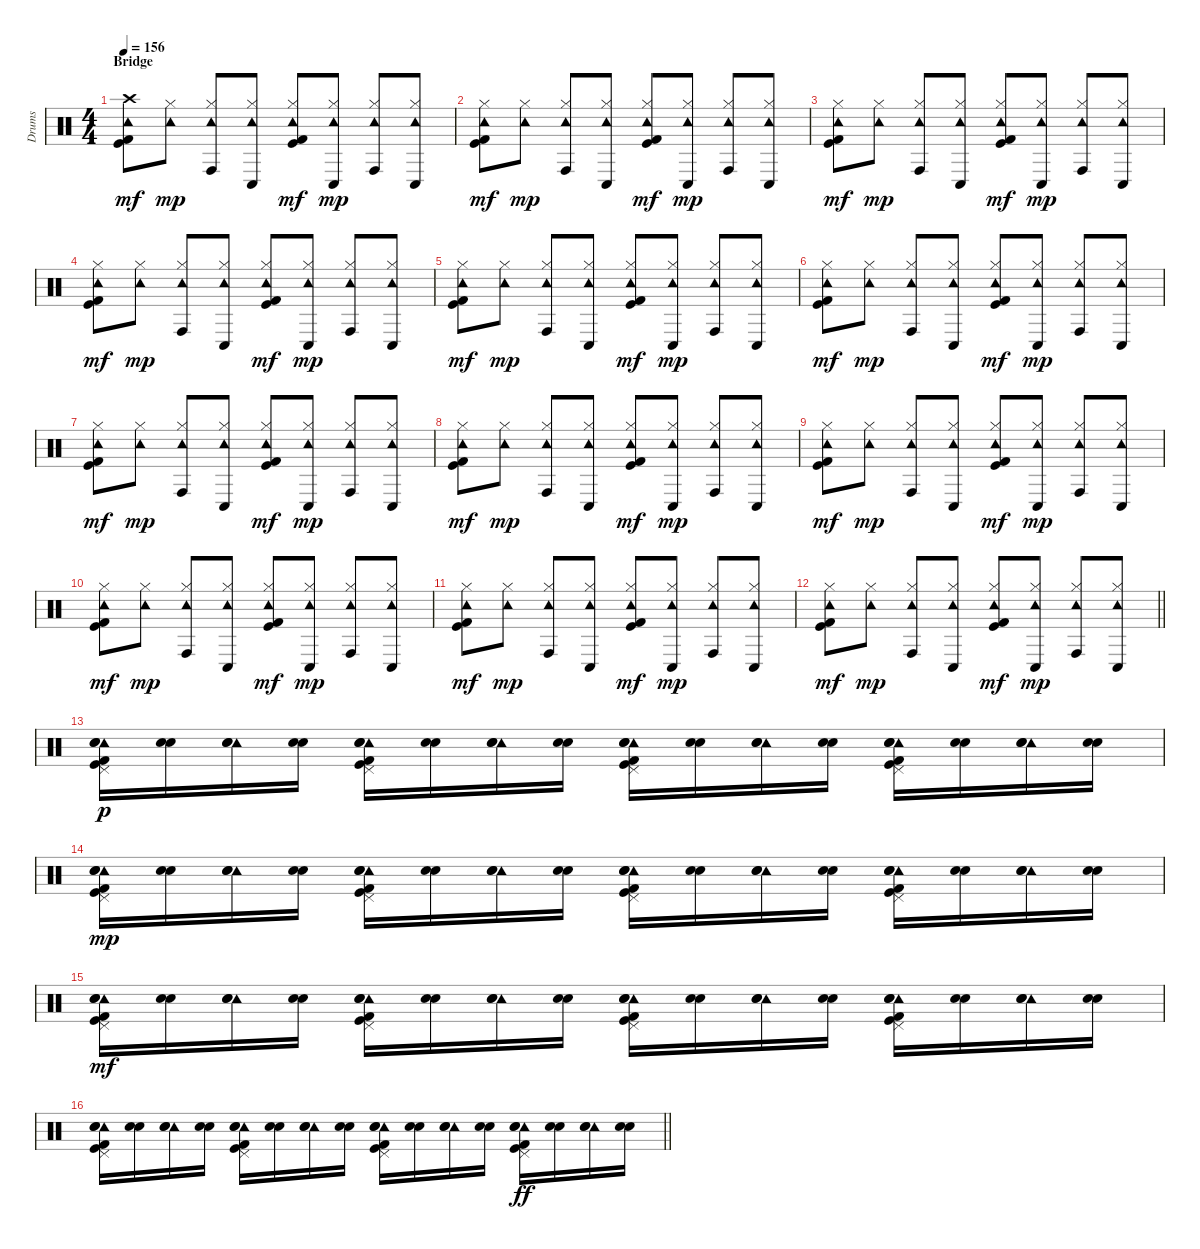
\track ("Drums" "Drums") {instrument percussion}
\staff {score}
\articulation defaults
\ts (4 4)
\section ("" "Bridge")
\tempo 156
\clef neutral
\ks c
("Crash high (hit)" "Tambourine (hit)" "Kick (hit) 2" "Kick (hit)").8{dy mf} ("Hi-Hat (closed)" "Tambourine (hit)").8{dy mp} ("Hi-Hat (closed)" "Tambourine (hit)" "Conga high (hit)").8 ("Hi-Hat (closed)" "Tambourine (hit)" "Conga low (hit)").8 ("Hi-Hat (closed)" "Tambourine (hit)" "Kick (hit) 2" "Kick (hit)").8{dy mf} ("Hi-Hat (closed)" "Tambourine (hit)" "Conga low (hit)").8{dy mp} ("Hi-Hat (closed)" "Tambourine (hit)" "Conga high (hit)").8 ("Hi-Hat (closed)" "Tambourine (hit)" "Conga low (hit)").8 |
("Hi-Hat (closed)" "Tambourine (hit)" "Kick (hit) 2" "Kick (hit)").8{dy mf} ("Hi-Hat (closed)" "Tambourine (hit)").8{dy mp} ("Hi-Hat (closed)" "Tambourine (hit)" "Conga high (hit)").8 ("Hi-Hat (closed)" "Tambourine (hit)" "Conga low (hit)").8 ("Hi-Hat (closed)" "Tambourine (hit)" "Kick (hit) 2" "Kick (hit)").8{dy mf} ("Hi-Hat (closed)" "Tambourine (hit)" "Conga low (hit)").8{dy mp} ("Hi-Hat (closed)" "Tambourine (hit)" "Conga high (hit)").8 ("Hi-Hat (closed)" "Tambourine (hit)" "Conga low (hit)").8 |
("Hi-Hat (closed)" "Tambourine (hit)" "Kick (hit) 2" "Kick (hit)").8{dy mf} ("Hi-Hat (closed)" "Tambourine (hit)").8{dy mp} ("Hi-Hat (closed)" "Tambourine (hit)" "Conga high (hit)").8 ("Hi-Hat (closed)" "Tambourine (hit)" "Conga low (hit)").8 ("Hi-Hat (closed)" "Tambourine (hit)" "Kick (hit) 2" "Kick (hit)").8{dy mf} ("Hi-Hat (closed)" "Tambourine (hit)" "Conga low (hit)").8{dy mp} ("Hi-Hat (closed)" "Tambourine (hit)" "Conga high (hit)").8 ("Hi-Hat (closed)" "Tambourine (hit)" "Conga low (hit)").8 |
("Hi-Hat (closed)" "Tambourine (hit)" "Kick (hit) 2" "Kick (hit)").8{dy mf} ("Hi-Hat (closed)" "Tambourine (hit)").8{dy mp} ("Hi-Hat (closed)" "Tambourine (hit)" "Conga high (hit)").8 ("Hi-Hat (closed)" "Tambourine (hit)" "Conga low (hit)").8 ("Hi-Hat (closed)" "Tambourine (hit)" "Kick (hit) 2" "Kick (hit)").8{dy mf} ("Hi-Hat (closed)" "Tambourine (hit)" "Conga low (hit)").8{dy mp} ("Hi-Hat (closed)" "Tambourine (hit)" "Conga high (hit)").8 ("Hi-Hat (closed)" "Tambourine (hit)" "Conga low (hit)").8 |
("Hi-Hat (closed)" "Tambourine (hit)" "Kick (hit) 2" "Kick (hit)").8{dy mf} ("Hi-Hat (closed)" "Tambourine (hit)").8{dy mp} ("Hi-Hat (closed)" "Tambourine (hit)" "Conga high (hit)").8 ("Hi-Hat (closed)" "Tambourine (hit)" "Conga low (hit)").8 ("Hi-Hat (closed)" "Tambourine (hit)" "Kick (hit) 2" "Kick (hit)").8{dy mf} ("Hi-Hat (closed)" "Tambourine (hit)" "Conga low (hit)").8{dy mp} ("Hi-Hat (closed)" "Tambourine (hit)" "Conga high (hit)").8 ("Hi-Hat (closed)" "Tambourine (hit)" "Conga low (hit)").8 |
("Hi-Hat (closed)" "Tambourine (hit)" "Kick (hit) 2" "Kick (hit)").8{dy mf} ("Hi-Hat (closed)" "Tambourine (hit)").8{dy mp} ("Hi-Hat (closed)" "Tambourine (hit)" "Conga high (hit)").8 ("Hi-Hat (closed)" "Tambourine (hit)" "Conga low (hit)").8 ("Hi-Hat (closed)" "Tambourine (hit)" "Kick (hit) 2" "Kick (hit)").8{dy mf} ("Hi-Hat (closed)" "Tambourine (hit)" "Conga low (hit)").8{dy mp} ("Hi-Hat (closed)" "Tambourine (hit)" "Conga high (hit)").8 ("Hi-Hat (closed)" "Tambourine (hit)" "Conga low (hit)").8 |
("Hi-Hat (closed)" "Tambourine (hit)" "Kick (hit) 2" "Kick (hit)").8{dy mf} ("Hi-Hat (closed)" "Tambourine (hit)").8{dy mp} ("Hi-Hat (closed)" "Tambourine (hit)" "Conga high (hit)").8 ("Hi-Hat (closed)" "Tambourine (hit)" "Conga low (hit)").8 ("Hi-Hat (closed)" "Tambourine (hit)" "Kick (hit) 2" "Kick (hit)").8{dy mf} ("Hi-Hat (closed)" "Tambourine (hit)" "Conga low (hit)").8{dy mp} ("Hi-Hat (closed)" "Tambourine (hit)" "Conga high (hit)").8 ("Hi-Hat (closed)" "Tambourine (hit)" "Conga low (hit)").8 |
("Hi-Hat (closed)" "Tambourine (hit)" "Kick (hit) 2" "Kick (hit)").8{dy mf} ("Hi-Hat (closed)" "Tambourine (hit)").8{dy mp} ("Hi-Hat (closed)" "Tambourine (hit)" "Conga high (hit)").8 ("Hi-Hat (closed)" "Tambourine (hit)" "Conga low (hit)").8 ("Hi-Hat (closed)" "Tambourine (hit)" "Kick (hit) 2" "Kick (hit)").8{dy mf} ("Hi-Hat (closed)" "Tambourine (hit)" "Conga low (hit)").8{dy mp} ("Hi-Hat (closed)" "Tambourine (hit)" "Conga high (hit)").8 ("Hi-Hat (closed)" "Tambourine (hit)" "Conga low (hit)").8 |
("Hi-Hat (closed)" "Tambourine (hit)" "Kick (hit) 2" "Kick (hit)").8{dy mf} ("Hi-Hat (closed)" "Tambourine (hit)").8{dy mp} ("Hi-Hat (closed)" "Tambourine (hit)" "Conga high (hit)").8 ("Hi-Hat (closed)" "Tambourine (hit)" "Conga low (hit)").8 ("Hi-Hat (closed)" "Tambourine (hit)" "Kick (hit) 2" "Kick (hit)").8{dy mf} ("Hi-Hat (closed)" "Tambourine (hit)" "Conga low (hit)").8{dy mp} ("Hi-Hat (closed)" "Tambourine (hit)" "Conga high (hit)").8 ("Hi-Hat (closed)" "Tambourine (hit)" "Conga low (hit)").8 |
("Hi-Hat (closed)" "Tambourine (hit)" "Kick (hit) 2" "Kick (hit)").8{dy mf} ("Hi-Hat (closed)" "Tambourine (hit)").8{dy mp} ("Hi-Hat (closed)" "Tambourine (hit)" "Conga high (hit)").8 ("Hi-Hat (closed)" "Tambourine (hit)" "Conga low (hit)").8 ("Hi-Hat (closed)" "Tambourine (hit)" "Kick (hit) 2" "Kick (hit)").8{dy mf} ("Hi-Hat (closed)" "Tambourine (hit)" "Conga low (hit)").8{dy mp} ("Hi-Hat (closed)" "Tambourine (hit)" "Conga high (hit)").8 ("Hi-Hat (closed)" "Tambourine (hit)" "Conga low (hit)").8 |
("Hi-Hat (closed)" "Tambourine (hit)" "Kick (hit) 2" "Kick (hit)").8{dy mf} ("Hi-Hat (closed)" "Tambourine (hit)").8{dy mp} ("Hi-Hat (closed)" "Tambourine (hit)" "Conga high (hit)").8 ("Hi-Hat (closed)" "Tambourine (hit)" "Conga low (hit)").8 ("Hi-Hat (closed)" "Tambourine (hit)" "Kick (hit) 2" "Kick (hit)").8{dy mf} ("Hi-Hat (closed)" "Tambourine (hit)" "Conga low (hit)").8{dy mp} ("Hi-Hat (closed)" "Tambourine (hit)" "Conga high (hit)").8 ("Hi-Hat (closed)" "Tambourine (hit)" "Conga low (hit)").8 |
\barLineRight lightlight
("Hi-Hat (closed)" "Tambourine (hit)" "Kick (hit) 2" "Kick (hit)").8{dy mf} ("Hi-Hat (closed)" "Tambourine (hit)").8{dy mp} ("Hi-Hat (closed)" "Tambourine (hit)" "Conga high (hit)").8 ("Hi-Hat (closed)" "Tambourine (hit)" "Conga low (hit)").8 ("Hi-Hat (closed)" "Tambourine (hit)" "Kick (hit) 2" "Kick (hit)").8{dy mf} ("Hi-Hat (closed)" "Tambourine (hit)" "Conga low (hit)").8{dy mp} ("Hi-Hat (closed)" "Tambourine (hit)" "Conga high (hit)").8 ("Hi-Hat (closed)" "Tambourine (hit)" "Conga low (hit)").8 |
("Pedal Hi-Hat (hit)" "Tambourine (hit)" "Kick (hit) 2" "Snare (hit) 2" "Electric Snare (hit)" "Kick (hit)").16{dy p} ("Snare (hit) 2" "Electric Snare (hit)").16 ("Tambourine (hit)" "Snare (hit) 2" "Electric Snare (hit)").16 ("Snare (hit) 2" "Electric Snare (hit)").16 ("Pedal Hi-Hat (hit)" "Tambourine (hit)" "Kick (hit) 2" "Snare (hit) 2" "Electric Snare (hit)" "Kick (hit)").16 ("Snare (hit) 2" "Electric Snare (hit)").16 ("Tambourine (hit)" "Snare (hit) 2" "Electric Snare (hit)").16 ("Snare (hit) 2" "Electric Snare (hit)").16 ("Pedal Hi-Hat (hit)" "Tambourine (hit)" "Kick (hit) 2" "Snare (hit) 2" "Electric Snare (hit)" "Kick (hit)").16 ("Snare (hit) 2" "Electric Snare (hit)").16 ("Tambourine (hit)" "Snare (hit) 2" "Electric Snare (hit)").16 ("Snare (hit) 2" "Electric Snare (hit)").16 ("Pedal Hi-Hat (hit)" "Tambourine (hit)" "Kick (hit) 2" "Snare (hit) 2" "Electric Snare (hit)" "Kick (hit)").16 ("Snare (hit) 2" "Electric Snare (hit)").16 ("Tambourine (hit)" "Snare (hit) 2" "Electric Snare (hit)").16 ("Snare (hit) 2" "Electric Snare (hit)").16 |
("Pedal Hi-Hat (hit)" "Tambourine (hit)" "Kick (hit) 2" "Snare (hit) 2" "Electric Snare (hit)" "Kick (hit)").16{dy mp} ("Snare (hit) 2" "Electric Snare (hit)").16 ("Tambourine (hit)" "Snare (hit) 2" "Electric Snare (hit)").16 ("Snare (hit) 2" "Electric Snare (hit)").16 ("Pedal Hi-Hat (hit)" "Tambourine (hit)" "Kick (hit) 2" "Snare (hit) 2" "Electric Snare (hit)" "Kick (hit)").16 ("Snare (hit) 2" "Electric Snare (hit)").16 ("Tambourine (hit)" "Snare (hit) 2" "Electric Snare (hit)").16 ("Snare (hit) 2" "Electric Snare (hit)").16 ("Pedal Hi-Hat (hit)" "Tambourine (hit)" "Kick (hit) 2" "Snare (hit) 2" "Electric Snare (hit)" "Kick (hit)").16 ("Snare (hit) 2" "Electric Snare (hit)").16 ("Tambourine (hit)" "Snare (hit) 2" "Electric Snare (hit)").16 ("Snare (hit) 2" "Electric Snare (hit)").16 ("Pedal Hi-Hat (hit)" "Tambourine (hit)" "Kick (hit) 2" "Snare (hit) 2" "Electric Snare (hit)" "Kick (hit)").16 ("Snare (hit) 2" "Electric Snare (hit)").16 ("Tambourine (hit)" "Snare (hit) 2" "Electric Snare (hit)").16 ("Snare (hit) 2" "Electric Snare (hit)").16 |
("Pedal Hi-Hat (hit)" "Tambourine (hit)" "Kick (hit) 2" "Snare (hit) 2" "Electric Snare (hit)" "Kick (hit)").16{dy mf} ("Snare (hit) 2" "Electric Snare (hit)").16 ("Tambourine (hit)" "Snare (hit) 2" "Electric Snare (hit)").16 ("Snare (hit) 2" "Electric Snare (hit)").16 ("Pedal Hi-Hat (hit)" "Tambourine (hit)" "Kick (hit) 2" "Snare (hit) 2" "Electric Snare (hit)" "Kick (hit)").16 ("Snare (hit) 2" "Electric Snare (hit)").16 ("Tambourine (hit)" "Snare (hit) 2" "Electric Snare (hit)").16 ("Snare (hit) 2" "Electric Snare (hit)").16 ("Pedal Hi-Hat (hit)" "Tambourine (hit)" "Kick (hit) 2" "Snare (hit) 2" "Electric Snare (hit)" "Kick (hit)").16 ("Snare (hit) 2" "Electric Snare (hit)").16 ("Tambourine (hit)" "Snare (hit) 2" "Electric Snare (hit)").16 ("Snare (hit) 2" "Electric Snare (hit)").16 ("Pedal Hi-Hat (hit)" "Tambourine (hit)" "Kick (hit) 2" "Snare (hit) 2" "Electric Snare (hit)" "Kick (hit)").16 ("Snare (hit) 2" "Electric Snare (hit)").16 ("Tambourine (hit)" "Snare (hit) 2" "Electric Snare (hit)").16 ("Snare (hit) 2" "Electric Snare (hit)").16 |
\barLineRight lightlight
("Pedal Hi-Hat (hit)" "Tambourine (hit)" "Kick (hit) 2" "Snare (hit) 2" "Electric Snare (hit)" "Kick (hit)").16 ("Snare (hit) 2" "Electric Snare (hit)").16 ("Tambourine (hit)" "Snare (hit) 2" "Electric Snare (hit)").16 ("Snare (hit) 2" "Electric Snare (hit)").16 ("Pedal Hi-Hat (hit)" "Tambourine (hit)" "Kick (hit) 2" "Snare (hit) 2" "Electric Snare (hit)" "Kick (hit)").16 ("Snare (hit) 2" "Electric Snare (hit)").16 ("Tambourine (hit)" "Snare (hit) 2" "Electric Snare (hit)").16 ("Snare (hit) 2" "Electric Snare (hit)").16 ("Pedal Hi-Hat (hit)" "Tambourine (hit)" "Kick (hit) 2" "Snare (hit) 2" "Electric Snare (hit)" "Kick (hit)").16 ("Snare (hit) 2" "Electric Snare (hit)").16 ("Tambourine (hit)" "Snare (hit) 2" "Electric Snare (hit)").16 ("Snare (hit) 2" "Electric Snare (hit)").16 ("Pedal Hi-Hat (hit)" "Tambourine (hit)" "Kick (hit) 2" "Snare (hit) 2" "Electric Snare (hit)" "Kick (hit)").16{dy ff} ("Snare (hit) 2" "Electric Snare (hit)").16 ("Tambourine (hit)" "Snare (hit) 2" "Electric Snare (hit)").16 ("Snare (hit) 2" "Electric Snare (hit)").16
